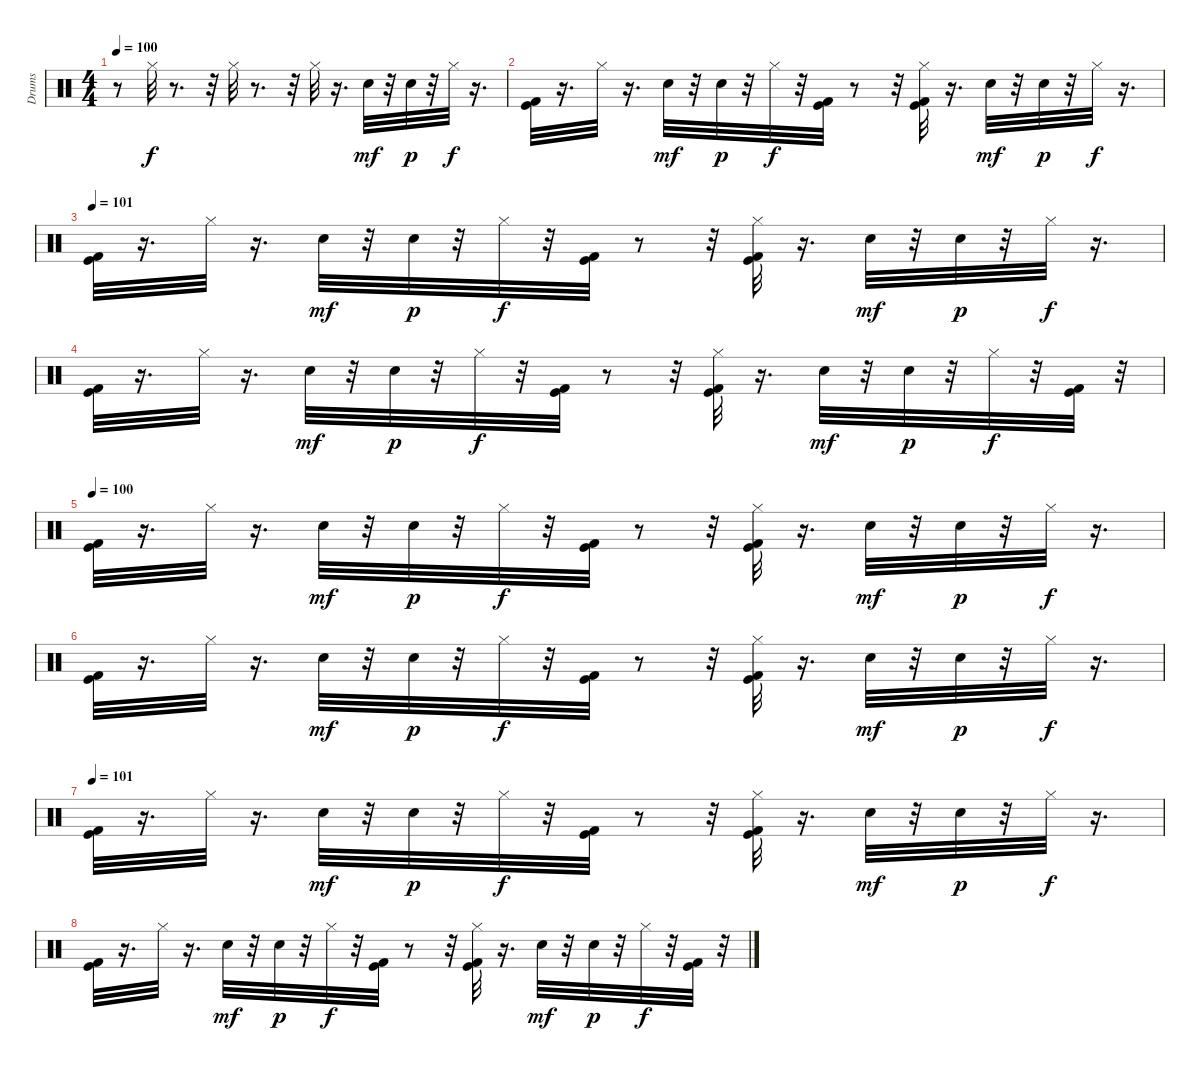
\track ("Drums" "Drums") {instrument percussion}
\staff {score}
\articulation defaults
\ts (4 4)
\tempo 100
\clef neutral
\ks c
r.8{dy f} "Hi-Hat (closed)".32 r.8{d} r.32 "Hi-Hat (closed)".32 r.8{d} r.32 "Hi-Hat (closed)".32 r.16{d} "Hand Clap (hit)".32{dy mf} r.32 "Hand Clap (hit)".32{dy p} r.32 "Hi-Hat (closed)".32{dy f} r.16{d} |
("Kick (hit)" "Kick (hit) 2").32 r.16{d} "Hi-Hat (closed)".32 r.16{d} "Hand Clap (hit)".32{dy mf} r.32 "Hand Clap (hit)".32{dy p} r.32 "Hi-Hat (closed)".32{dy f} r.32 ("Kick (hit)" "Kick (hit) 2").32 r.8 r.32 ("Kick (hit)" "Kick (hit) 2" "Hi-Hat (closed)").32 r.16{d} "Hand Clap (hit)".32{dy mf} r.32 "Hand Clap (hit)".32{dy p} r.32 "Hi-Hat (closed)".32{dy f} r.16{d} |
\tempo 101
("Kick (hit)" "Kick (hit) 2").32 r.16{d} "Hi-Hat (closed)".32 r.16{d} "Hand Clap (hit)".32{dy mf} r.32 "Hand Clap (hit)".32{dy p} r.32 "Hi-Hat (closed)".32{dy f} r.32 ("Kick (hit)" "Kick (hit) 2").32 r.8 r.32 ("Kick (hit)" "Kick (hit) 2" "Hi-Hat (closed)").32 r.16{d} "Hand Clap (hit)".32{dy mf} r.32 "Hand Clap (hit)".32{dy p} r.32 "Hi-Hat (closed)".32{dy f} r.16{d} |
("Kick (hit)" "Kick (hit) 2").32 r.16{d} "Hi-Hat (closed)".32 r.16{d} "Hand Clap (hit)".32{dy mf} r.32 "Hand Clap (hit)".32{dy p} r.32 "Hi-Hat (closed)".32{dy f} r.32 ("Kick (hit)" "Kick (hit) 2").32 r.8 r.32 ("Kick (hit)" "Kick (hit) 2" "Hi-Hat (closed)").32 r.16{d} "Hand Clap (hit)".32{dy mf} r.32 "Hand Clap (hit)".32{dy p} r.32 "Hi-Hat (closed)".32{dy f} r.32 ("Kick (hit)" "Kick (hit) 2").32 r.32 |
\tempo 100
("Kick (hit)" "Kick (hit) 2").32 r.16{d} "Hi-Hat (closed)".32 r.16{d} "Hand Clap (hit)".32{dy mf} r.32 "Hand Clap (hit)".32{dy p} r.32 "Hi-Hat (closed)".32{dy f} r.32 ("Kick (hit)" "Kick (hit) 2").32 r.8 r.32 ("Kick (hit)" "Kick (hit) 2" "Hi-Hat (closed)").32 r.16{d} "Hand Clap (hit)".32{dy mf} r.32 "Hand Clap (hit)".32{dy p} r.32 "Hi-Hat (closed)".32{dy f} r.16{d} |
("Kick (hit)" "Kick (hit) 2").32 r.16{d} "Hi-Hat (closed)".32 r.16{d} "Hand Clap (hit)".32{dy mf} r.32 "Hand Clap (hit)".32{dy p} r.32 "Hi-Hat (closed)".32{dy f} r.32 ("Kick (hit)" "Kick (hit) 2").32 r.8 r.32 ("Kick (hit)" "Kick (hit) 2" "Hi-Hat (closed)").32 r.16{d} "Hand Clap (hit)".32{dy mf} r.32 "Hand Clap (hit)".32{dy p} r.32 "Hi-Hat (closed)".32{dy f} r.16{d} |
\tempo 101
("Kick (hit)" "Kick (hit) 2").32 r.16{d} "Hi-Hat (closed)".32 r.16{d} "Hand Clap (hit)".32{dy mf} r.32 "Hand Clap (hit)".32{dy p} r.32 "Hi-Hat (closed)".32{dy f} r.32 ("Kick (hit)" "Kick (hit) 2").32 r.8 r.32 ("Kick (hit)" "Kick (hit) 2" "Hi-Hat (closed)").32 r.16{d} "Hand Clap (hit)".32{dy mf} r.32 "Hand Clap (hit)".32{dy p} r.32 "Hi-Hat (closed)".32{dy f} r.16{d} |
("Kick (hit)" "Kick (hit) 2").32 r.16{d} "Hi-Hat (closed)".32 r.16{d} "Hand Clap (hit)".32{dy mf} r.32 "Hand Clap (hit)".32{dy p} r.32 "Hi-Hat (closed)".32{dy f} r.32 ("Kick (hit)" "Kick (hit) 2").32 r.8 r.32 ("Kick (hit)" "Kick (hit) 2" "Hi-Hat (closed)").32 r.16{d} "Hand Clap (hit)".32{dy mf} r.32 "Hand Clap (hit)".32{dy p} r.32 "Hi-Hat (closed)".32{dy f} r.32 ("Kick (hit)" "Kick (hit) 2").32 r.32
